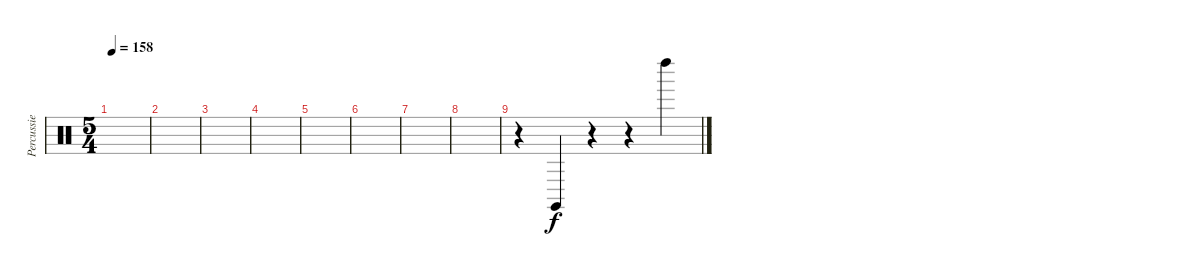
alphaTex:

\track ("Percussie" "Percussie") {instrument percussion}
\staff {score}
\articulation defaults
\ts (5 4)
\tempo 158
\clef neutral
\ks c
|
|
|
|
|
|
|
|
r.4 "Claves (hit)".4 r.4 r.4 "Left Maraca (hit)".4
